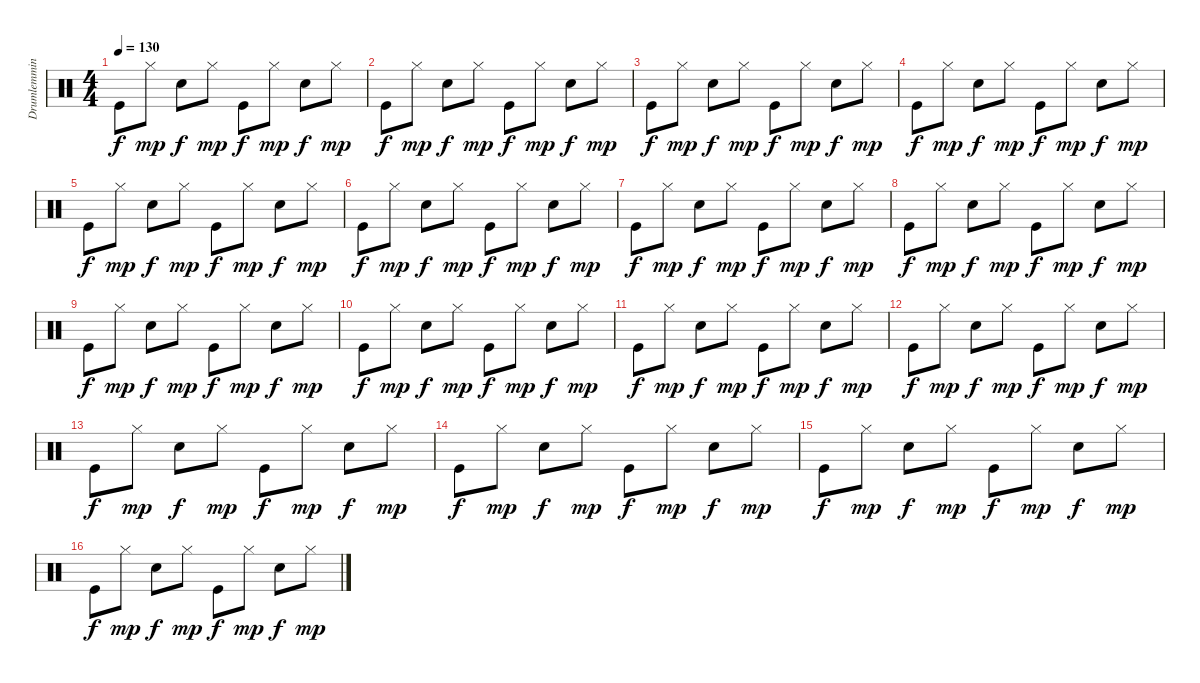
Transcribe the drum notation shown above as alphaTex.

\track ("Drumlemming" "Drumlemmin") {instrument percussion}
\staff {score}
\articulation defaults
\ts (4 4)
\tempo 130
\clef neutral
\ks c "Kick (hit)".8{dy f} "Hi-Hat (closed)".8{dy mp} "Electric Snare (hit)".8{dy f} "Hi-Hat (closed)".8{dy mp} "Kick (hit)".8{dy f} "Hi-Hat (closed)".8{dy mp} "Electric Snare (hit)".8{dy f} "Hi-Hat (closed)".8{dy mp}
|
"Kick (hit)".8{dy f} "Hi-Hat (closed)".8{dy mp} "Electric Snare (hit)".8{dy f} "Hi-Hat (closed)".8{dy mp} "Kick (hit)".8{dy f} "Hi-Hat (closed)".8{dy mp} "Electric Snare (hit)".8{dy f} "Hi-Hat (closed)".8{dy mp} |
"Kick (hit)".8{dy f} "Hi-Hat (closed)".8{dy mp} "Electric Snare (hit)".8{dy f} "Hi-Hat (closed)".8{dy mp} "Kick (hit)".8{dy f} "Hi-Hat (closed)".8{dy mp} "Electric Snare (hit)".8{dy f} "Hi-Hat (closed)".8{dy mp} |
"Kick (hit)".8{dy f} "Hi-Hat (closed)".8{dy mp} "Electric Snare (hit)".8{dy f} "Hi-Hat (closed)".8{dy mp} "Kick (hit)".8{dy f} "Hi-Hat (closed)".8{dy mp} "Electric Snare (hit)".8{dy f} "Hi-Hat (closed)".8{dy mp} |
"Kick (hit)".8{dy f} "Hi-Hat (closed)".8{dy mp} "Electric Snare (hit)".8{dy f} "Hi-Hat (closed)".8{dy mp} "Kick (hit)".8{dy f} "Hi-Hat (closed)".8{dy mp} "Electric Snare (hit)".8{dy f} "Hi-Hat (closed)".8{dy mp} |
"Kick (hit)".8{dy f} "Hi-Hat (closed)".8{dy mp} "Electric Snare (hit)".8{dy f} "Hi-Hat (closed)".8{dy mp} "Kick (hit)".8{dy f} "Hi-Hat (closed)".8{dy mp} "Electric Snare (hit)".8{dy f} "Hi-Hat (closed)".8{dy mp} |
"Kick (hit)".8{dy f} "Hi-Hat (closed)".8{dy mp} "Electric Snare (hit)".8{dy f} "Hi-Hat (closed)".8{dy mp} "Kick (hit)".8{dy f} "Hi-Hat (closed)".8{dy mp} "Electric Snare (hit)".8{dy f} "Hi-Hat (closed)".8{dy mp} |
"Kick (hit)".8{dy f} "Hi-Hat (closed)".8{dy mp} "Electric Snare (hit)".8{dy f} "Hi-Hat (closed)".8{dy mp} "Kick (hit)".8{dy f} "Hi-Hat (closed)".8{dy mp} "Electric Snare (hit)".8{dy f} "Hi-Hat (closed)".8{dy mp} |
"Kick (hit)".8{dy f} "Hi-Hat (closed)".8{dy mp} "Electric Snare (hit)".8{dy f} "Hi-Hat (closed)".8{dy mp} "Kick (hit)".8{dy f} "Hi-Hat (closed)".8{dy mp} "Electric Snare (hit)".8{dy f} "Hi-Hat (closed)".8{dy mp} |
"Kick (hit)".8{dy f} "Hi-Hat (closed)".8{dy mp} "Electric Snare (hit)".8{dy f} "Hi-Hat (closed)".8{dy mp} "Kick (hit)".8{dy f} "Hi-Hat (closed)".8{dy mp} "Electric Snare (hit)".8{dy f} "Hi-Hat (closed)".8{dy mp} |
"Kick (hit)".8{dy f} "Hi-Hat (closed)".8{dy mp} "Electric Snare (hit)".8{dy f} "Hi-Hat (closed)".8{dy mp} "Kick (hit)".8{dy f} "Hi-Hat (closed)".8{dy mp} "Electric Snare (hit)".8{dy f} "Hi-Hat (closed)".8{dy mp} |
"Kick (hit)".8{dy f} "Hi-Hat (closed)".8{dy mp} "Electric Snare (hit)".8{dy f} "Hi-Hat (closed)".8{dy mp} "Kick (hit)".8{dy f} "Hi-Hat (closed)".8{dy mp} "Electric Snare (hit)".8{dy f} "Hi-Hat (closed)".8{dy mp} |
"Kick (hit)".8{dy f} "Hi-Hat (closed)".8{dy mp} "Electric Snare (hit)".8{dy f} "Hi-Hat (closed)".8{dy mp} "Kick (hit)".8{dy f} "Hi-Hat (closed)".8{dy mp} "Electric Snare (hit)".8{dy f} "Hi-Hat (closed)".8{dy mp} |
"Kick (hit)".8{dy f} "Hi-Hat (closed)".8{dy mp} "Electric Snare (hit)".8{dy f} "Hi-Hat (closed)".8{dy mp} "Kick (hit)".8{dy f} "Hi-Hat (closed)".8{dy mp} "Electric Snare (hit)".8{dy f} "Hi-Hat (closed)".8{dy mp} |
"Kick (hit)".8{dy f} "Hi-Hat (closed)".8{dy mp} "Electric Snare (hit)".8{dy f} "Hi-Hat (closed)".8{dy mp} "Kick (hit)".8{dy f} "Hi-Hat (closed)".8{dy mp} "Electric Snare (hit)".8{dy f} "Hi-Hat (closed)".8{dy mp} |
"Kick (hit)".8{dy f} "Hi-Hat (closed)".8{dy mp} "Electric Snare (hit)".8{dy f} "Hi-Hat (closed)".8{dy mp} "Kick (hit)".8{dy f} "Hi-Hat (closed)".8{dy mp} "Electric Snare (hit)".8{dy f} "Hi-Hat (closed)".8{dy mp}
